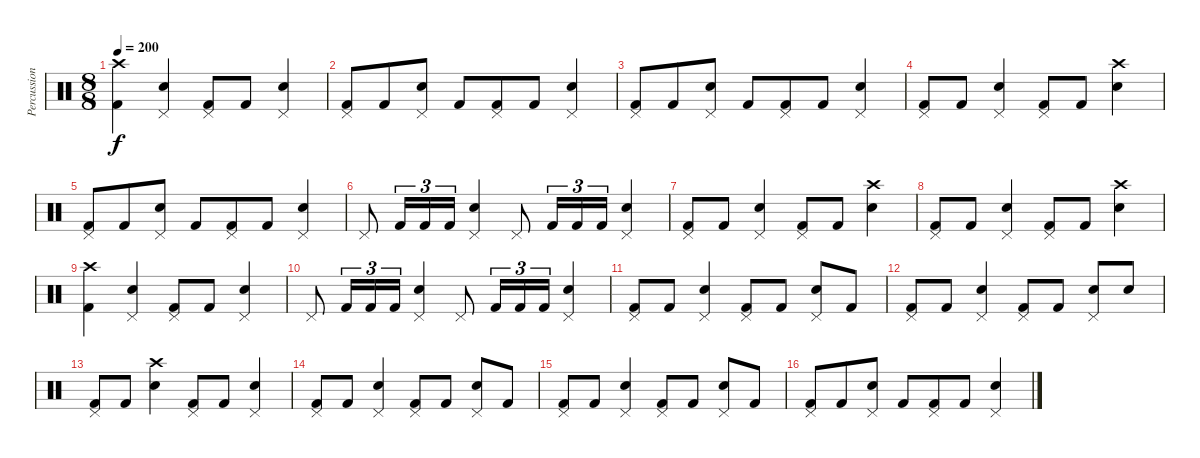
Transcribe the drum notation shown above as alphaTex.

\track ("Percussions" "Percussion") {instrument percussion}
\staff {score}
\articulation defaults
\ts (8 8)
\tempo 200
\clef neutral
\ks c
("Crash high (hit)" "Kick (hit) 2").4{dy f} ("Pedal Hi-Hat (hit)" "Snare (hit) 2").4 ("Pedal Hi-Hat (hit)" "Kick (hit) 2").8 "Kick (hit) 2".8 ("Pedal Hi-Hat (hit)" "Snare (hit) 2").4 |
("Pedal Hi-Hat (hit)" "Kick (hit) 2").8 "Kick (hit) 2".8 ("Pedal Hi-Hat (hit)" "Snare (hit) 2").8 "Kick (hit) 2".8 ("Pedal Hi-Hat (hit)" "Kick (hit) 2").8 "Kick (hit) 2".8 ("Pedal Hi-Hat (hit)" "Snare (hit) 2").4 |
("Pedal Hi-Hat (hit)" "Kick (hit) 2").8 "Kick (hit) 2".8 ("Pedal Hi-Hat (hit)" "Snare (hit) 2").8 "Kick (hit) 2".8 ("Pedal Hi-Hat (hit)" "Kick (hit) 2").8 "Kick (hit) 2".8 ("Pedal Hi-Hat (hit)" "Snare (hit) 2").4 |
("Pedal Hi-Hat (hit)" "Kick (hit) 2").8 "Kick (hit) 2".8 ("Pedal Hi-Hat (hit)" "Snare (hit) 2").4 ("Pedal Hi-Hat (hit)" "Kick (hit) 2").8 "Kick (hit) 2".8 ("Crash high (hit)" "Snare (hit) 2").4 |
("Pedal Hi-Hat (hit)" "Kick (hit) 2").8 "Kick (hit) 2".8 ("Pedal Hi-Hat (hit)" "Snare (hit) 2").8 "Kick (hit) 2".8 ("Pedal Hi-Hat (hit)" "Kick (hit) 2").8 "Kick (hit) 2".8 ("Pedal Hi-Hat (hit)" "Snare (hit) 2").4 |
"Pedal Hi-Hat (hit)".8 "Kick (hit) 2".16{tu (3 2)} "Kick (hit) 2".16{tu (3 2)} "Kick (hit) 2".16{tu (3 2)} ("Pedal Hi-Hat (hit)" "Snare (hit) 2").4 "Pedal Hi-Hat (hit)".8 "Kick (hit) 2".16{tu (3 2)} "Kick (hit) 2".16{tu (3 2)} "Kick (hit) 2".16{tu (3 2)} ("Pedal Hi-Hat (hit)" "Snare (hit) 2").4 |
("Pedal Hi-Hat (hit)" "Kick (hit) 2").8 "Kick (hit) 2".8 ("Pedal Hi-Hat (hit)" "Snare (hit) 2").4 ("Pedal Hi-Hat (hit)" "Kick (hit) 2").8 "Kick (hit) 2".8 ("Crash high (hit)" "Snare (hit) 2").4 |
("Pedal Hi-Hat (hit)" "Kick (hit) 2").8 "Kick (hit) 2".8 ("Pedal Hi-Hat (hit)" "Snare (hit) 2").4 ("Pedal Hi-Hat (hit)" "Kick (hit) 2").8 "Kick (hit) 2".8 ("Crash high (hit)" "Snare (hit) 2").4 |
("Crash high (hit)" "Kick (hit) 2").4 ("Pedal Hi-Hat (hit)" "Snare (hit) 2").4 ("Pedal Hi-Hat (hit)" "Kick (hit) 2").8 "Kick (hit) 2".8 ("Pedal Hi-Hat (hit)" "Snare (hit) 2").4 |
"Pedal Hi-Hat (hit)".8 "Kick (hit) 2".16{tu (3 2)} "Kick (hit) 2".16{tu (3 2)} "Kick (hit) 2".16{tu (3 2)} ("Pedal Hi-Hat (hit)" "Snare (hit) 2").4 "Pedal Hi-Hat (hit)".8 "Kick (hit) 2".16{tu (3 2)} "Kick (hit) 2".16{tu (3 2)} "Kick (hit) 2".16{tu (3 2)} ("Pedal Hi-Hat (hit)" "Snare (hit) 2").4 |
("Pedal Hi-Hat (hit)" "Kick (hit) 2").8 "Kick (hit) 2".8 ("Pedal Hi-Hat (hit)" "Snare (hit) 2").4 ("Pedal Hi-Hat (hit)" "Kick (hit) 2").8 "Kick (hit) 2".8 ("Pedal Hi-Hat (hit)" "Snare (hit) 2").8 "Kick (hit) 2".8 |
("Pedal Hi-Hat (hit)" "Kick (hit) 2").8 "Kick (hit) 2".8 ("Pedal Hi-Hat (hit)" "Snare (hit) 2").4 ("Pedal Hi-Hat (hit)" "Kick (hit) 2").8 "Kick (hit) 2".8 ("Pedal Hi-Hat (hit)" "Snare (hit) 2").8 "Snare (hit) 2".8 |
("Pedal Hi-Hat (hit)" "Kick (hit) 2").8 "Kick (hit) 2".8 ("Crash high (hit)" "Snare (hit) 2").4 ("Pedal Hi-Hat (hit)" "Kick (hit) 2").8 "Kick (hit) 2".8 ("Pedal Hi-Hat (hit)" "Snare (hit) 2").4 |
("Pedal Hi-Hat (hit)" "Kick (hit) 2").8 "Kick (hit) 2".8 ("Pedal Hi-Hat (hit)" "Snare (hit) 2").4 ("Pedal Hi-Hat (hit)" "Kick (hit) 2").8 "Kick (hit) 2".8 ("Pedal Hi-Hat (hit)" "Snare (hit) 2").8 "Kick (hit) 2".8 |
("Pedal Hi-Hat (hit)" "Kick (hit) 2").8 "Kick (hit) 2".8 ("Pedal Hi-Hat (hit)" "Snare (hit) 2").4 ("Pedal Hi-Hat (hit)" "Kick (hit) 2").8 "Kick (hit) 2".8 ("Pedal Hi-Hat (hit)" "Snare (hit) 2").8 "Kick (hit) 2".8 |
("Pedal Hi-Hat (hit)" "Kick (hit) 2").8 "Kick (hit) 2".8 ("Pedal Hi-Hat (hit)" "Snare (hit) 2").8 "Kick (hit) 2".8 ("Pedal Hi-Hat (hit)" "Kick (hit) 2").8 "Kick (hit) 2".8 ("Pedal Hi-Hat (hit)" "Snare (hit) 2").4
